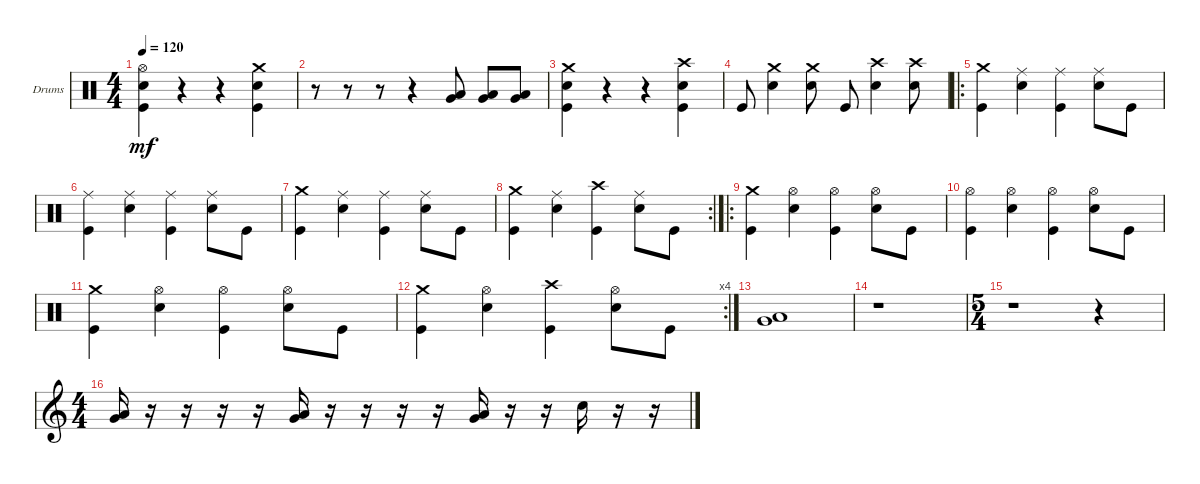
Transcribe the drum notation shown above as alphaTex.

\bracketExtendMode groupsimilarinstruments
\firstSystemTrackNameOrientation horizontal
\otherSystemsTrackNameOrientation horizontal
\track ("Drums" "Drums") {instrument percussion}
\staff {score}
\articulation defaults
\ts (4 4)
\tempo 120
\clef neutral
\ks c
("Kick (hit)" "Snare (hit) 2" "Hi-Hat (open)").4{dy mf} r.4 r.4 ("Kick (hit)" "Snare (hit) 2" "Crash medium (hit)").4 |
r.8 r.8 r.8 r.4 ("Very Low Tom (hit)" "Low Tom (hit)").8 ("Very Low Tom (hit)" "Low Tom (hit)").8 ("Very Low Tom (hit)" "Low Tom (hit)").8 |
("Kick (hit)" "Snare (hit) 2" "Crash medium (hit)").4 r.4 r.4 ("Kick (hit)" "Snare (hit) 2" "Crash high (hit)").4 |
"Kick (hit)".8 ("Snare (hit) 2" "Crash medium (hit)").4 ("Snare (hit) 2" "Crash medium (hit)").8 "Kick (hit)".8 ("Snare (hit) 2" "Crash high (hit)").4 ("Snare (hit) 2" "Crash high (hit)").8 |
\ro
("Kick (hit)" "Crash medium (hit)").4 ("Snare (hit) 2" "Ride (middle)").4 ("Kick (hit)" "Ride (middle)").4 ("Snare (hit) 2" "Ride (middle)").8 "Kick (hit)".8 |
("Kick (hit)" "Ride (middle)").4 ("Snare (hit) 2" "Ride (middle)").4 ("Kick (hit)" "Ride (middle)").4 ("Snare (hit) 2" "Ride (middle)").8 "Kick (hit)".8 |
("Kick (hit)" "Crash medium (hit)").4 ("Snare (hit) 2" "Ride (middle)").4 ("Kick (hit)" "Ride (middle)").4 ("Snare (hit) 2" "Ride (middle)").8 "Kick (hit)".8 |
\rc 2
("Kick (hit)" "Crash medium (hit)").4 ("Snare (hit) 2" "Ride (middle)").4 ("Kick (hit)" "Crash high (hit)").4 ("Snare (hit) 2" "Ride (middle)").8 "Kick (hit)".8 |
\ro
("Kick (hit)" "Crash medium (hit)").4 ("Snare (hit) 2" "Hi-Hat (open)").4 ("Kick (hit)" "Hi-Hat (open)").4 ("Snare (hit) 2" "Hi-Hat (open)").8 "Kick (hit)".8 |
("Kick (hit)" "Hi-Hat (open)").4 ("Snare (hit) 2" "Hi-Hat (open)").4 ("Kick (hit)" "Hi-Hat (open)").4 ("Snare (hit) 2" "Hi-Hat (open)").8 "Kick (hit)".8 |
("Kick (hit)" "Crash medium (hit)").4 ("Snare (hit) 2" "Hi-Hat (open)").4 ("Kick (hit)" "Hi-Hat (open)").4 ("Snare (hit) 2" "Hi-Hat (open)").8 "Kick (hit)".8 |
\rc 4
("Kick (hit)" "Crash medium (hit)").4 ("Snare (hit) 2" "Hi-Hat (open)").4 ("Kick (hit)" "Crash high (hit)").4 ("Snare (hit) 2" "Hi-Hat (open)").8 "Kick (hit)".8 |
("Very Low Tom (hit)" "Low Tom (hit)").1 |
r.1 |
\ts (5 4)
r.1 r.4 |
\ts (4 4)
\clef g2
("Very Low Tom (hit)" "Low Tom (hit)").16 r.16 r.16 r.16 r.16 ("Very Low Tom (hit)" "Low Tom (hit)").16 r.16 r.16 r.16 r.16 ("Very Low Tom (hit)" "Low Tom (hit)").16 r.16 r.16 "Snare (hit) 2".16 r.16 r.16
